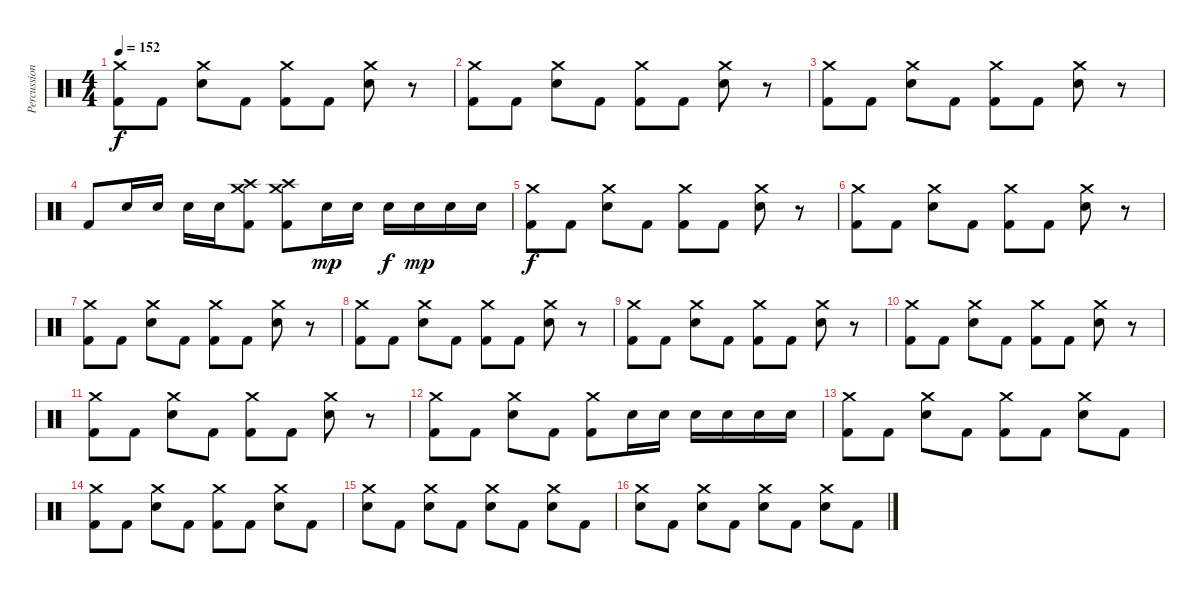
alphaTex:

\track ("Percussions" "Percussion") {instrument percussion}
\staff {score}
\articulation defaults
\ts (4 4)
\tempo 152
\clef neutral
\ks c
("Crash medium (hit)" "Kick (hit) 2").8{dy f} "Kick (hit) 2".8 ("Crash medium (hit)" "Electric Snare (hit)").8 "Kick (hit) 2".8 ("Crash medium (hit)" "Kick (hit) 2").8 "Kick (hit) 2".8 ("Crash medium (hit)" "Electric Snare (hit)").8 r.8 |
("Crash medium (hit)" "Kick (hit) 2").8 "Kick (hit) 2".8 ("Crash medium (hit)" "Electric Snare (hit)").8 "Kick (hit) 2".8 ("Crash medium (hit)" "Kick (hit) 2").8 "Kick (hit) 2".8 ("Crash medium (hit)" "Electric Snare (hit)").8 r.8 |
("Crash medium (hit)" "Kick (hit) 2").8 "Kick (hit) 2".8 ("Crash medium (hit)" "Electric Snare (hit)").8 "Kick (hit) 2".8 ("Crash medium (hit)" "Kick (hit) 2").8 "Kick (hit) 2".8 ("Crash medium (hit)" "Electric Snare (hit)").8 r.8 |
"Kick (hit) 2".8 "Electric Snare (hit)".16 "Electric Snare (hit)".16 "Electric Snare (hit)".16 "Electric Snare (hit)".16 ("Crash medium (hit)" "Crash high (hit)" "Kick (hit) 2").8 ("Crash medium (hit)" "Crash high (hit)" "Kick (hit) 2").8 "Electric Snare (hit)".16{dy mp} "Electric Snare (hit)".16 "Electric Snare (hit)".16{dy f} "Electric Snare (hit)".16{dy mp} "Electric Snare (hit)".16 "Electric Snare (hit)".16 |
("Crash medium (hit)" "Kick (hit) 2").8{dy f} "Kick (hit) 2".8 ("Crash medium (hit)" "Electric Snare (hit)").8 "Kick (hit) 2".8 ("Crash medium (hit)" "Kick (hit) 2").8 "Kick (hit) 2".8 ("Crash medium (hit)" "Electric Snare (hit)").8 r.8 |
("Crash medium (hit)" "Kick (hit) 2").8 "Kick (hit) 2".8 ("Crash medium (hit)" "Electric Snare (hit)").8 "Kick (hit) 2".8 ("Crash medium (hit)" "Kick (hit) 2").8 "Kick (hit) 2".8 ("Crash medium (hit)" "Electric Snare (hit)").8 r.8 |
("Crash medium (hit)" "Kick (hit) 2").8 "Kick (hit) 2".8 ("Crash medium (hit)" "Electric Snare (hit)").8 "Kick (hit) 2".8 ("Crash medium (hit)" "Kick (hit) 2").8 "Kick (hit) 2".8 ("Crash medium (hit)" "Electric Snare (hit)").8 r.8 |
("Crash medium (hit)" "Kick (hit) 2").8 "Kick (hit) 2".8 ("Crash medium (hit)" "Electric Snare (hit)").8 "Kick (hit) 2".8 ("Crash medium (hit)" "Kick (hit) 2").8 "Kick (hit) 2".8 ("Crash medium (hit)" "Electric Snare (hit)").8 r.8 |
("Crash medium (hit)" "Kick (hit) 2").8 "Kick (hit) 2".8 ("Crash medium (hit)" "Electric Snare (hit)").8 "Kick (hit) 2".8 ("Crash medium (hit)" "Kick (hit) 2").8 "Kick (hit) 2".8 ("Crash medium (hit)" "Electric Snare (hit)").8 r.8 |
("Crash medium (hit)" "Kick (hit) 2").8 "Kick (hit) 2".8 ("Crash medium (hit)" "Electric Snare (hit)").8 "Kick (hit) 2".8 ("Crash medium (hit)" "Kick (hit) 2").8 "Kick (hit) 2".8 ("Crash medium (hit)" "Electric Snare (hit)").8 r.8 |
("Crash medium (hit)" "Kick (hit) 2").8 "Kick (hit) 2".8 ("Crash medium (hit)" "Electric Snare (hit)").8 "Kick (hit) 2".8 ("Crash medium (hit)" "Kick (hit) 2").8 "Kick (hit) 2".8 ("Crash medium (hit)" "Electric Snare (hit)").8 r.8 |
("Crash medium (hit)" "Kick (hit) 2").8 "Kick (hit) 2".8 ("Crash medium (hit)" "Electric Snare (hit)").8 "Kick (hit) 2".8 ("Crash medium (hit)" "Kick (hit) 2").8 "Electric Snare (hit)".16 "Electric Snare (hit)".16 "Electric Snare (hit)".16 "Electric Snare (hit)".16 "Electric Snare (hit)".16 "Electric Snare (hit)".16 |
("Crash medium (hit)" "Kick (hit) 2").8 "Kick (hit) 2".8 ("Crash medium (hit)" "Electric Snare (hit)").8 "Kick (hit) 2".8 ("Crash medium (hit)" "Kick (hit) 2").8 "Kick (hit) 2".8 ("Crash medium (hit)" "Electric Snare (hit)").8 "Kick (hit) 2".8 |
("Crash medium (hit)" "Kick (hit) 2").8 "Kick (hit) 2".8 ("Crash medium (hit)" "Electric Snare (hit)").8 "Kick (hit) 2".8 ("Crash medium (hit)" "Kick (hit) 2").8 "Kick (hit) 2".8 ("Crash medium (hit)" "Electric Snare (hit)").8 "Kick (hit) 2".8 |
("Crash medium (hit)" "Electric Snare (hit)").8 "Kick (hit) 2".8 ("Crash medium (hit)" "Electric Snare (hit)").8 "Kick (hit) 2".8 ("Crash medium (hit)" "Electric Snare (hit)").8 "Kick (hit) 2".8 ("Crash medium (hit)" "Electric Snare (hit)").8 "Kick (hit) 2".8 |
("Crash medium (hit)" "Electric Snare (hit)").8 "Kick (hit) 2".8 ("Crash medium (hit)" "Electric Snare (hit)").8 "Kick (hit) 2".8 ("Crash medium (hit)" "Electric Snare (hit)").8 "Kick (hit) 2".8 ("Crash medium (hit)" "Electric Snare (hit)").8 "Kick (hit) 2".8
